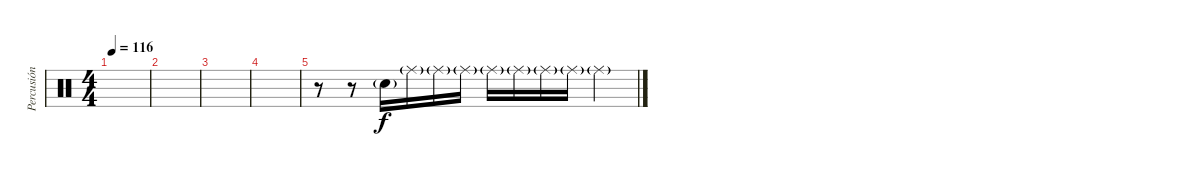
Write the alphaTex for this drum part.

\track ("Percusión" "Percusión") {instrument percussion}
\staff {score}
\articulation defaults
\ts (4 4)
\tempo 116
\clef neutral
\ks c
|
|
|
|
r.8 r.8 "Snare (hit)"{g}.16 "Ride (middle)"{g}.16 "Ride (middle)"{g}.16 "Ride (middle)"{g}.16 "Ride (middle)"{g}.16 "Ride (middle)"{g}.16 "Ride (middle)"{g}.16 "Ride (middle)"{g}.16 "Ride (middle)"{g}.4
